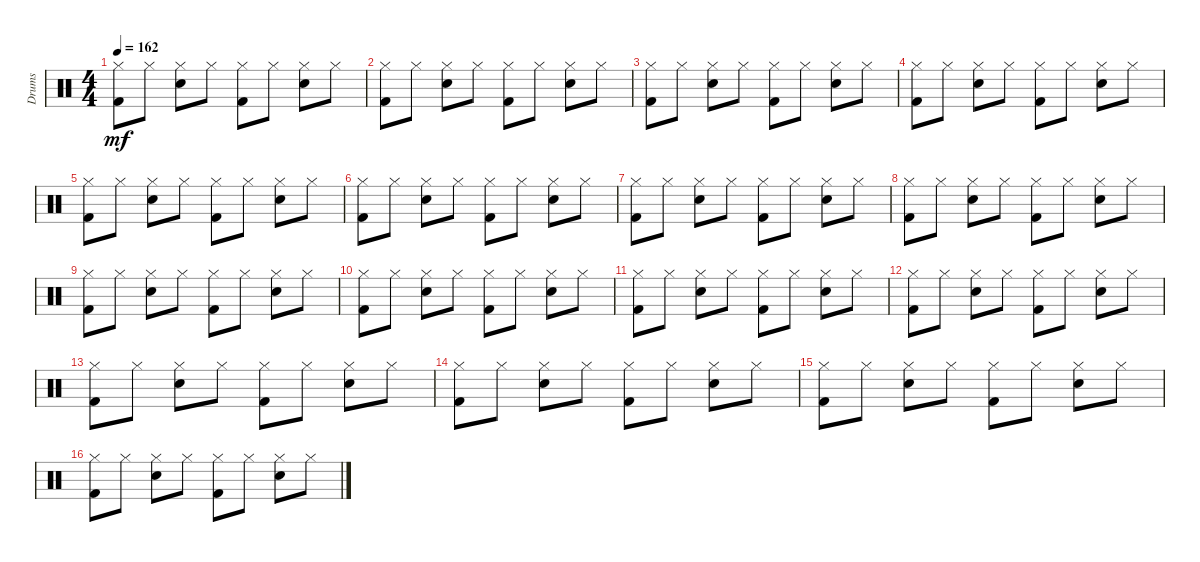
\track ("Drums" "Drums") {instrument percussion}
\staff {score}
\articulation defaults
\ts (4 4)
\tempo 162
\clef neutral
\ks c
("Hi-Hat (closed)" "Kick (hit) 2").8{dy mf} "Hi-Hat (closed)".8 ("Hi-Hat (closed)" "Snare (hit) 2").8 "Hi-Hat (closed)".8 ("Hi-Hat (closed)" "Kick (hit) 2").8 "Hi-Hat (closed)".8 ("Hi-Hat (closed)" "Snare (hit) 2").8 "Hi-Hat (closed)".8 |
("Hi-Hat (closed)" "Kick (hit) 2").8 "Hi-Hat (closed)".8 ("Hi-Hat (closed)" "Snare (hit) 2").8 "Hi-Hat (closed)".8 ("Hi-Hat (closed)" "Kick (hit) 2").8 "Hi-Hat (closed)".8 ("Hi-Hat (closed)" "Snare (hit) 2").8 "Hi-Hat (closed)".8 |
("Hi-Hat (closed)" "Kick (hit) 2").8 "Hi-Hat (closed)".8 ("Hi-Hat (closed)" "Snare (hit) 2").8 "Hi-Hat (closed)".8 ("Hi-Hat (closed)" "Kick (hit) 2").8 "Hi-Hat (closed)".8 ("Hi-Hat (closed)" "Snare (hit) 2").8 "Hi-Hat (closed)".8 |
("Hi-Hat (closed)" "Kick (hit) 2").8 "Hi-Hat (closed)".8 ("Hi-Hat (closed)" "Snare (hit) 2").8 "Hi-Hat (closed)".8 ("Hi-Hat (closed)" "Kick (hit) 2").8 "Hi-Hat (closed)".8 ("Hi-Hat (closed)" "Snare (hit) 2").8 "Hi-Hat (closed)".8 |
("Hi-Hat (closed)" "Kick (hit) 2").8 "Hi-Hat (closed)".8 ("Hi-Hat (closed)" "Snare (hit) 2").8 "Hi-Hat (closed)".8 ("Hi-Hat (closed)" "Kick (hit) 2").8 "Hi-Hat (closed)".8 ("Hi-Hat (closed)" "Snare (hit) 2").8 "Hi-Hat (closed)".8 |
("Hi-Hat (closed)" "Kick (hit) 2").8 "Hi-Hat (closed)".8 ("Hi-Hat (closed)" "Snare (hit) 2").8 "Hi-Hat (closed)".8 ("Hi-Hat (closed)" "Kick (hit) 2").8 "Hi-Hat (closed)".8 ("Hi-Hat (closed)" "Snare (hit) 2").8 "Hi-Hat (closed)".8 |
("Hi-Hat (closed)" "Kick (hit) 2").8 "Hi-Hat (closed)".8 ("Hi-Hat (closed)" "Snare (hit) 2").8 "Hi-Hat (closed)".8 ("Hi-Hat (closed)" "Kick (hit) 2").8 "Hi-Hat (closed)".8 ("Hi-Hat (closed)" "Snare (hit) 2").8 "Hi-Hat (closed)".8 |
("Hi-Hat (closed)" "Kick (hit) 2").8 "Hi-Hat (closed)".8 ("Hi-Hat (closed)" "Snare (hit) 2").8 "Hi-Hat (closed)".8 ("Hi-Hat (closed)" "Kick (hit) 2").8 "Hi-Hat (closed)".8 ("Hi-Hat (closed)" "Snare (hit) 2").8 "Hi-Hat (closed)".8 |
("Hi-Hat (closed)" "Kick (hit) 2").8 "Hi-Hat (closed)".8 ("Hi-Hat (closed)" "Snare (hit) 2").8 "Hi-Hat (closed)".8 ("Hi-Hat (closed)" "Kick (hit) 2").8 "Hi-Hat (closed)".8 ("Hi-Hat (closed)" "Snare (hit) 2").8 "Hi-Hat (closed)".8 |
("Hi-Hat (closed)" "Kick (hit) 2").8 "Hi-Hat (closed)".8 ("Hi-Hat (closed)" "Snare (hit) 2").8 "Hi-Hat (closed)".8 ("Hi-Hat (closed)" "Kick (hit) 2").8 "Hi-Hat (closed)".8 ("Hi-Hat (closed)" "Snare (hit) 2").8 "Hi-Hat (closed)".8 |
("Hi-Hat (closed)" "Kick (hit) 2").8 "Hi-Hat (closed)".8 ("Hi-Hat (closed)" "Snare (hit) 2").8 "Hi-Hat (closed)".8 ("Hi-Hat (closed)" "Kick (hit) 2").8 "Hi-Hat (closed)".8 ("Hi-Hat (closed)" "Snare (hit) 2").8 "Hi-Hat (closed)".8 |
("Hi-Hat (closed)" "Kick (hit) 2").8 "Hi-Hat (closed)".8 ("Hi-Hat (closed)" "Snare (hit) 2").8 "Hi-Hat (closed)".8 ("Hi-Hat (closed)" "Kick (hit) 2").8 "Hi-Hat (closed)".8 ("Hi-Hat (closed)" "Snare (hit) 2").8 "Hi-Hat (closed)".8 |
("Hi-Hat (closed)" "Kick (hit) 2").8 "Hi-Hat (closed)".8 ("Hi-Hat (closed)" "Snare (hit) 2").8 "Hi-Hat (closed)".8 ("Hi-Hat (closed)" "Kick (hit) 2").8 "Hi-Hat (closed)".8 ("Hi-Hat (closed)" "Snare (hit) 2").8 "Hi-Hat (closed)".8 |
("Hi-Hat (closed)" "Kick (hit) 2").8 "Hi-Hat (closed)".8 ("Hi-Hat (closed)" "Snare (hit) 2").8 "Hi-Hat (closed)".8 ("Hi-Hat (closed)" "Kick (hit) 2").8 "Hi-Hat (closed)".8 ("Hi-Hat (closed)" "Snare (hit) 2").8 "Hi-Hat (closed)".8 |
("Hi-Hat (closed)" "Kick (hit) 2").8 "Hi-Hat (closed)".8 ("Hi-Hat (closed)" "Snare (hit) 2").8 "Hi-Hat (closed)".8 ("Hi-Hat (closed)" "Kick (hit) 2").8 "Hi-Hat (closed)".8 ("Hi-Hat (closed)" "Snare (hit) 2").8 "Hi-Hat (closed)".8 |
("Hi-Hat (closed)" "Kick (hit) 2").8 "Hi-Hat (closed)".8 ("Hi-Hat (closed)" "Snare (hit) 2").8 "Hi-Hat (closed)".8 ("Hi-Hat (closed)" "Kick (hit) 2").8 "Hi-Hat (closed)".8 ("Hi-Hat (closed)" "Snare (hit) 2").8 "Hi-Hat (closed)".8
